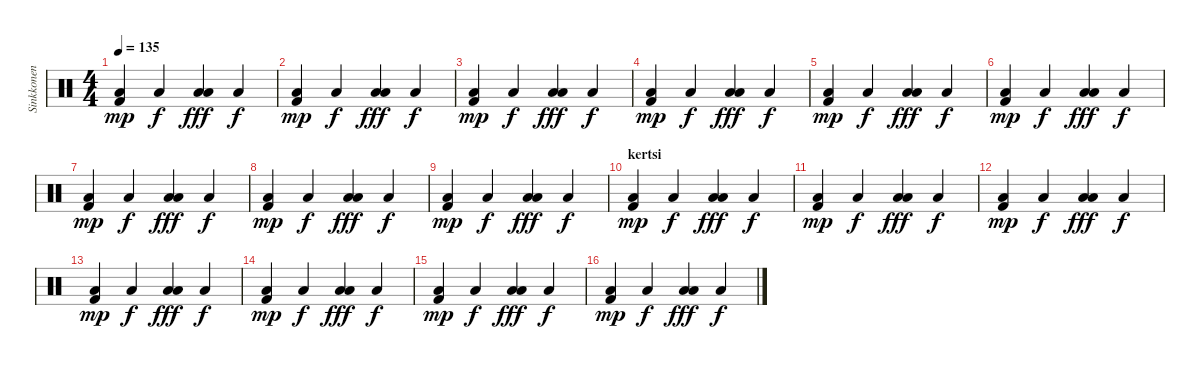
\track ("Sinkkonen" "Sinkkonen") {instrument percussion}
\staff {score}
\articulation defaults
\ts (4 4)
\tempo 135
\clef neutral
\ks c
("Kick (hit) 2" "Low Floor Tom (hit)").4{dy mp} "Low Floor Tom (hit)".4{dy f} ("Low Floor Tom (hit)" "Low Floor Tom (hit)").4{dy fff} "Low Floor Tom (hit)".4{dy f} |
("Kick (hit) 2" "Low Floor Tom (hit)").4{dy mp} "Low Floor Tom (hit)".4{dy f} ("Low Floor Tom (hit)" "Low Floor Tom (hit)").4{dy fff} "Low Floor Tom (hit)".4{dy f} |
("Kick (hit) 2" "Low Floor Tom (hit)").4{dy mp} "Low Floor Tom (hit)".4{dy f} ("Low Floor Tom (hit)" "Low Floor Tom (hit)").4{dy fff} "Low Floor Tom (hit)".4{dy f} |
("Kick (hit) 2" "Low Floor Tom (hit)").4{dy mp} "Low Floor Tom (hit)".4{dy f} ("Low Floor Tom (hit)" "Low Floor Tom (hit)").4{dy fff} "Low Floor Tom (hit)".4{dy f} |
("Kick (hit) 2" "Low Floor Tom (hit)").4{dy mp} "Low Floor Tom (hit)".4{dy f} ("Low Floor Tom (hit)" "Low Floor Tom (hit)").4{dy fff} "Low Floor Tom (hit)".4{dy f} |
("Kick (hit) 2" "Low Floor Tom (hit)").4{dy mp} "Low Floor Tom (hit)".4{dy f} ("Low Floor Tom (hit)" "Low Floor Tom (hit)").4{dy fff} "Low Floor Tom (hit)".4{dy f} |
("Kick (hit) 2" "Low Floor Tom (hit)").4{dy mp} "Low Floor Tom (hit)".4{dy f} ("Low Floor Tom (hit)" "Low Floor Tom (hit)").4{dy fff} "Low Floor Tom (hit)".4{dy f} |
("Kick (hit) 2" "Low Floor Tom (hit)").4{dy mp} "Low Floor Tom (hit)".4{dy f} ("Low Floor Tom (hit)" "Low Floor Tom (hit)").4{dy fff} "Low Floor Tom (hit)".4{dy f} |
("Kick (hit) 2" "Low Floor Tom (hit)").4{dy mp} "Low Floor Tom (hit)".4{dy f} ("Low Floor Tom (hit)" "Low Floor Tom (hit)").4{dy fff} "Low Floor Tom (hit)".4{dy f} |
\section ("" "kertsi")
("Kick (hit) 2" "Low Floor Tom (hit)").4{dy mp} "Low Floor Tom (hit)".4{dy f} ("Low Floor Tom (hit)" "Low Floor Tom (hit)").4{dy fff} "Low Floor Tom (hit)".4{dy f} |
("Kick (hit) 2" "Low Floor Tom (hit)").4{dy mp} "Low Floor Tom (hit)".4{dy f} ("Low Floor Tom (hit)" "Low Floor Tom (hit)").4{dy fff} "Low Floor Tom (hit)".4{dy f} |
("Kick (hit) 2" "Low Floor Tom (hit)").4{dy mp} "Low Floor Tom (hit)".4{dy f} ("Low Floor Tom (hit)" "Low Floor Tom (hit)").4{dy fff} "Low Floor Tom (hit)".4{dy f} |
("Kick (hit) 2" "Low Floor Tom (hit)").4{dy mp} "Low Floor Tom (hit)".4{dy f} ("Low Floor Tom (hit)" "Low Floor Tom (hit)").4{dy fff} "Low Floor Tom (hit)".4{dy f} |
("Kick (hit) 2" "Low Floor Tom (hit)").4{dy mp} "Low Floor Tom (hit)".4{dy f} ("Low Floor Tom (hit)" "Low Floor Tom (hit)").4{dy fff} "Low Floor Tom (hit)".4{dy f} |
("Kick (hit) 2" "Low Floor Tom (hit)").4{dy mp} "Low Floor Tom (hit)".4{dy f} ("Low Floor Tom (hit)" "Low Floor Tom (hit)").4{dy fff} "Low Floor Tom (hit)".4{dy f} |
("Kick (hit) 2" "Low Floor Tom (hit)").4{dy mp} "Low Floor Tom (hit)".4{dy f} ("Low Floor Tom (hit)" "Low Floor Tom (hit)").4{dy fff} "Low Floor Tom (hit)".4{dy f}
